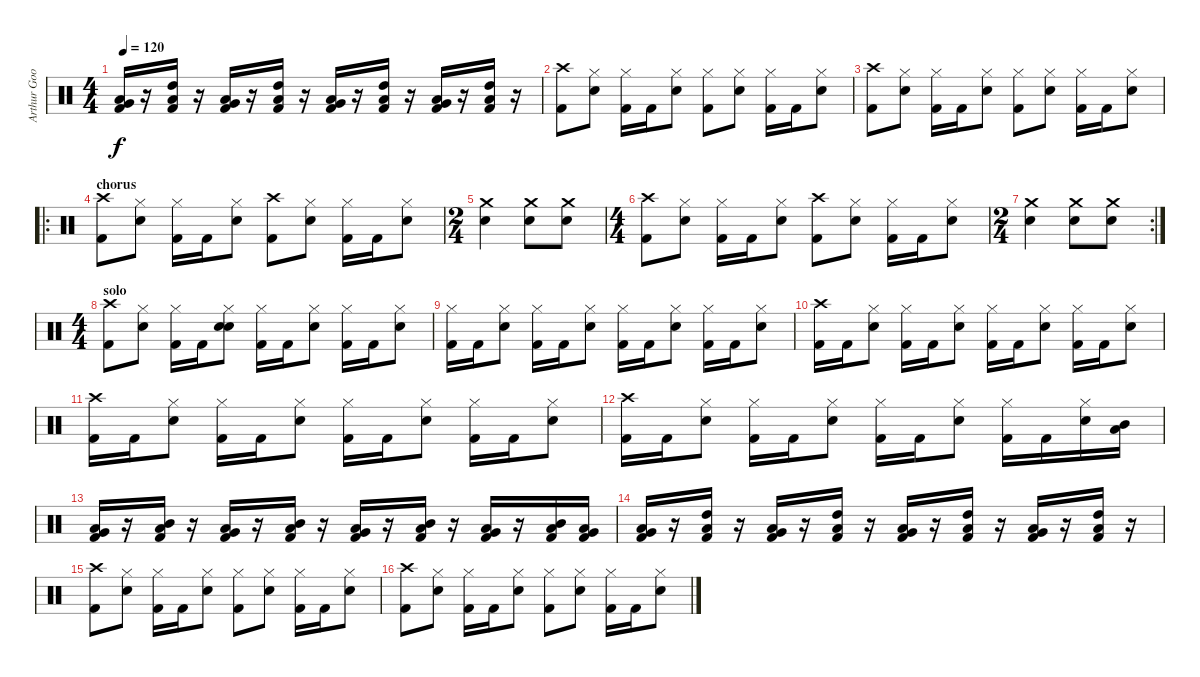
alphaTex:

\track ("Arthur Googy" "Arthur Goo") {instrument percussion}
\staff {score}
\articulation defaults
\ts (4 4)
\tempo 120
\clef neutral
\ks c
("Low Tom (hit)" "Very Low Tom (hit)" "Kick (hit) 2").16{dy f} r.16 ("High Tom (hit)" "Low Tom (hit)" "Kick (hit) 2").16 r.16 ("Low Tom (hit)" "Very Low Tom (hit)" "Kick (hit) 2").16 r.16 ("High Tom (hit)" "Low Tom (hit)" "Kick (hit) 2").16 r.16 ("Low Tom (hit)" "Very Low Tom (hit)" "Kick (hit) 2").16 r.16 ("High Tom (hit)" "Low Tom (hit)" "Kick (hit) 2").16 r.16 ("Low Tom (hit)" "Very Low Tom (hit)" "Kick (hit) 2").16 r.16 ("High Tom (hit)" "Low Tom (hit)" "Kick (hit) 2").16 r.16 |
("Crash high (hit)" "Kick (hit) 2").8 ("Hi-Hat (closed)" "Snare (hit) 2").8 ("Hi-Hat (closed)" "Kick (hit) 2").16 "Kick (hit) 2".16 ("Hi-Hat (closed)" "Snare (hit) 2").8 ("Hi-Hat (closed)" "Kick (hit) 2").8 ("Hi-Hat (closed)" "Snare (hit) 2").8 ("Hi-Hat (closed)" "Kick (hit) 2").16 "Kick (hit) 2".16 ("Hi-Hat (closed)" "Snare (hit) 2").8 |
("Crash high (hit)" "Kick (hit) 2").8 ("Hi-Hat (closed)" "Snare (hit) 2").8 ("Hi-Hat (closed)" "Kick (hit) 2").16 "Kick (hit) 2".16 ("Hi-Hat (closed)" "Snare (hit) 2").8 ("Hi-Hat (closed)" "Kick (hit) 2").8 ("Hi-Hat (closed)" "Snare (hit) 2").8 ("Hi-Hat (closed)" "Kick (hit) 2").16 "Kick (hit) 2".16 ("Hi-Hat (closed)" "Snare (hit) 2").8 |
\ro
\section ("" "chorus")
("Crash high (hit)" "Kick (hit) 2").8 ("Hi-Hat (closed)" "Snare (hit) 2").8 ("Hi-Hat (closed)" "Kick (hit) 2").16 "Kick (hit) 2".16 ("Hi-Hat (closed)" "Snare (hit) 2").8 ("Crash high (hit)" "Kick (hit) 2").8 ("Hi-Hat (closed)" "Snare (hit) 2").8 ("Hi-Hat (closed)" "Kick (hit) 2").16 "Kick (hit) 2".16 ("Hi-Hat (closed)" "Snare (hit) 2").8 |
\ts (2 4)
("Crash medium (hit)" "Snare (hit) 2").4 ("Crash medium (hit)" "Snare (hit) 2").8 ("Crash medium (hit)" "Snare (hit) 2").8 |
\ts (4 4)
("Crash high (hit)" "Kick (hit) 2").8 ("Hi-Hat (closed)" "Snare (hit) 2").8 ("Hi-Hat (closed)" "Kick (hit) 2").16 "Kick (hit) 2".16 ("Hi-Hat (closed)" "Snare (hit) 2").8 ("Crash high (hit)" "Kick (hit) 2").8 ("Hi-Hat (closed)" "Snare (hit) 2").8 ("Hi-Hat (closed)" "Kick (hit) 2").16 "Kick (hit) 2".16 ("Hi-Hat (closed)" "Snare (hit) 2").8 |
\rc 2
\ts (2 4)
("Crash medium (hit)" "Snare (hit) 2").4 ("Crash medium (hit)" "Snare (hit) 2").8 ("Crash medium (hit)" "Snare (hit) 2").8 |
\ts (4 4)
\section ("" "solo")
("Crash high (hit)" "Kick (hit) 2").8 ("Hi-Hat (closed)" "Snare (hit) 2").8 ("Hi-Hat (closed)" "Kick (hit) 2").16 "Kick (hit) 2".16 ("Hi-Hat (closed)" "Snare (hit) 2" "Snare (hit) 2").8 ("Hi-Hat (closed)" "Kick (hit) 2").16 "Kick (hit) 2".16 ("Hi-Hat (closed)" "Snare (hit) 2").8 ("Hi-Hat (closed)" "Kick (hit) 2").16 "Kick (hit) 2".16 ("Hi-Hat (closed)" "Snare (hit) 2").8 |
("Hi-Hat (closed)" "Kick (hit) 2").16 "Kick (hit) 2".16 ("Hi-Hat (closed)" "Snare (hit) 2").8 ("Hi-Hat (closed)" "Kick (hit) 2").16 "Kick (hit) 2".16 ("Hi-Hat (closed)" "Snare (hit) 2").8 ("Hi-Hat (closed)" "Kick (hit) 2").16 "Kick (hit) 2".16 ("Hi-Hat (closed)" "Snare (hit) 2").8 ("Hi-Hat (closed)" "Kick (hit) 2").16 "Kick (hit) 2".16 ("Hi-Hat (closed)" "Snare (hit) 2").8 |
("Crash high (hit)" "Kick (hit) 2").16 "Kick (hit) 2".16 ("Hi-Hat (closed)" "Snare (hit) 2").8 ("Hi-Hat (closed)" "Kick (hit) 2").16 "Kick (hit) 2".16 ("Hi-Hat (closed)" "Snare (hit) 2").8 ("Hi-Hat (closed)" "Kick (hit) 2").16 "Kick (hit) 2".16 ("Hi-Hat (closed)" "Snare (hit) 2").8 ("Hi-Hat (closed)" "Kick (hit) 2").16 "Kick (hit) 2".16 ("Hi-Hat (closed)" "Snare (hit) 2").8 |
("Crash high (hit)" "Kick (hit) 2").16 "Kick (hit) 2".16 ("Hi-Hat (closed)" "Snare (hit) 2").8 ("Hi-Hat (closed)" "Kick (hit) 2").16 "Kick (hit) 2".16 ("Hi-Hat (closed)" "Snare (hit) 2").8 ("Hi-Hat (closed)" "Kick (hit) 2").16 "Kick (hit) 2".16 ("Hi-Hat (closed)" "Snare (hit) 2").8 ("Hi-Hat (closed)" "Kick (hit) 2").16 "Kick (hit) 2".16 ("Hi-Hat (closed)" "Snare (hit) 2").8 |
("Crash high (hit)" "Kick (hit) 2").16 "Kick (hit) 2".16 ("Hi-Hat (closed)" "Snare (hit) 2").8 ("Hi-Hat (closed)" "Kick (hit) 2").16 "Kick (hit) 2".16 ("Hi-Hat (closed)" "Snare (hit) 2").8 ("Hi-Hat (closed)" "Kick (hit) 2").16 "Kick (hit) 2".16 ("Hi-Hat (closed)" "Snare (hit) 2").8 ("Hi-Hat (closed)" "Kick (hit) 2").16 "Kick (hit) 2".16 ("Hi-Hat (closed)" "Snare (hit) 2").16 ("Mid Tom (hit)" "Low Tom (hit)").16 |
("Low Tom (hit)" "Very Low Tom (hit)" "Kick (hit) 2").16 r.16 ("Mid Tom (hit)" "Low Tom (hit)" "Kick (hit) 2").16 r.16 ("Low Tom (hit)" "Very Low Tom (hit)" "Kick (hit) 2").16 r.16 ("Mid Tom (hit)" "Low Tom (hit)" "Kick (hit) 2").16 r.16 ("Low Tom (hit)" "Very Low Tom (hit)" "Kick (hit) 2").16 r.16 ("Mid Tom (hit)" "Low Tom (hit)" "Kick (hit) 2").16 r.16 ("Low Tom (hit)" "Very Low Tom (hit)" "Kick (hit) 2").16 r.16 ("Mid Tom (hit)" "Low Tom (hit)" "Kick (hit) 2").16 ("Low Tom (hit)" "Very Low Tom (hit)" "Kick (hit) 2").16 |
("Low Tom (hit)" "Very Low Tom (hit)" "Kick (hit) 2").16 r.16 ("High Tom (hit)" "Low Tom (hit)" "Kick (hit) 2").16 r.16 ("Low Tom (hit)" "Very Low Tom (hit)" "Kick (hit) 2").16 r.16 ("High Tom (hit)" "Low Tom (hit)" "Kick (hit) 2").16 r.16 ("Low Tom (hit)" "Very Low Tom (hit)" "Kick (hit) 2").16 r.16 ("High Tom (hit)" "Low Tom (hit)" "Kick (hit) 2").16 r.16 ("Low Tom (hit)" "Very Low Tom (hit)" "Kick (hit) 2").16 r.16 ("High Tom (hit)" "Low Tom (hit)" "Kick (hit) 2").16 r.16 |
("Crash high (hit)" "Kick (hit) 2").8 ("Hi-Hat (closed)" "Snare (hit) 2").8 ("Hi-Hat (closed)" "Kick (hit) 2").16 "Kick (hit) 2".16 ("Hi-Hat (closed)" "Snare (hit) 2").8 ("Hi-Hat (closed)" "Kick (hit) 2").8 ("Hi-Hat (closed)" "Snare (hit) 2").8 ("Hi-Hat (closed)" "Kick (hit) 2").16 "Kick (hit) 2".16 ("Hi-Hat (closed)" "Snare (hit) 2").8 |
("Crash high (hit)" "Kick (hit) 2").8 ("Hi-Hat (closed)" "Snare (hit) 2").8 ("Hi-Hat (closed)" "Kick (hit) 2").16 "Kick (hit) 2".16 ("Hi-Hat (closed)" "Snare (hit) 2").8 ("Hi-Hat (closed)" "Kick (hit) 2").8 ("Hi-Hat (closed)" "Snare (hit) 2").8 ("Hi-Hat (closed)" "Kick (hit) 2").16 "Kick (hit) 2".16 ("Hi-Hat (closed)" "Snare (hit) 2").8
